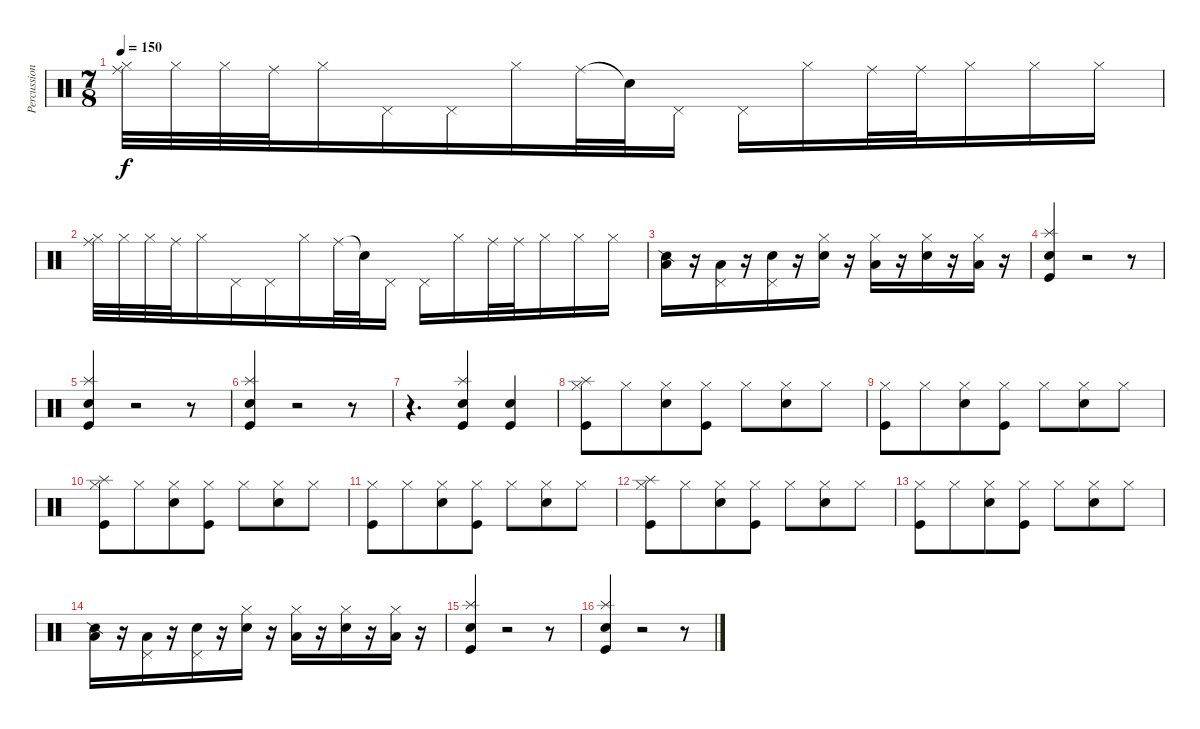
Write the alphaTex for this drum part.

\track ("Percussion" "Percussion") {instrument percussion}
\staff {score}
\articulation defaults
\ts (7 8)
\tempo 150
\clef neutral
\ks c
("Hi-Hat (closed)" "Ride (middle)").32{dy f} "Hi-Hat (closed)".32 "Hi-Hat (closed)".32 "Ride (middle)".32 "Hi-Hat (closed)".16 "Pedal Hi-Hat (hit)".16 "Pedal Hi-Hat (hit)".16 "Hi-Hat (closed)".16 "Ride (middle)".32 "Snare (hit)"{t}.32 "Pedal Hi-Hat (hit)".16 "Pedal Hi-Hat (hit)".16 "Hi-Hat (closed)".16 "Ride (middle)".32 "Ride (middle)".32 "Hi-Hat (closed)".16 "Hi-Hat (closed)".16 "Hi-Hat (closed)".16 |
("Hi-Hat (closed)" "Ride (middle)").32 "Hi-Hat (closed)".32 "Hi-Hat (closed)".32 "Ride (middle)".32 "Hi-Hat (closed)".16 "Pedal Hi-Hat (hit)".16 "Pedal Hi-Hat (hit)".16 "Hi-Hat (closed)".16 "Ride (middle)".32 "Snare (hit)"{t}.32 "Pedal Hi-Hat (hit)".16 "Pedal Hi-Hat (hit)".16 "Hi-Hat (closed)".16 "Ride (middle)".32 "Ride (middle)".32 "Hi-Hat (closed)".16 "Hi-Hat (closed)".16 "Hi-Hat (closed)".16 |
("Low Tom (hit)" "Snare (side stick) 2").16 r.16 ("Pedal Hi-Hat (hit)" "Low Tom (hit)").16 r.16 ("Pedal Hi-Hat (hit)" "Snare (hit) 2").16 r.16 ("Hi-Hat (closed)" "Snare (hit) 2").16 r.16 ("Hi-Hat (closed)" "Low Tom (hit)").16 r.16 ("Hi-Hat (closed)" "Snare (hit) 2").16 r.16 ("Hi-Hat (closed)" "Low Tom (hit)").16 r.16 |
("Splash (hit)" "Snare (hit) 2" "Kick (hit)").4 r.2 r.8 |
("Splash (hit)" "Snare (hit) 2" "Kick (hit)").4 r.2 r.8 |
("Splash (hit)" "Snare (hit) 2" "Kick (hit)").4 r.2 r.8 |
r.4{d} ("Splash (hit)" "Snare (hit) 2" "Kick (hit)").4 ("Snare (hit) 2" "Kick (hit)").4 |
("Splash (hit)" "Kick (hit)" "Hi-Hat (closed)").8 "Hi-Hat (closed)".8 ("Snare (hit) 2" "Hi-Hat (closed)").8 ("Kick (hit)" "Hi-Hat (closed)").8 "Hi-Hat (closed)".8 ("Snare (hit) 2" "Hi-Hat (closed)").8 "Hi-Hat (closed)".8 |
("Kick (hit)" "Hi-Hat (closed)").8 "Hi-Hat (closed)".8 ("Snare (hit) 2" "Hi-Hat (closed)").8 ("Kick (hit)" "Hi-Hat (closed)").8 "Hi-Hat (closed)".8 ("Snare (hit) 2" "Hi-Hat (closed)").8 "Hi-Hat (closed)".8 |
("Splash (hit)" "Kick (hit)" "Hi-Hat (closed)").8 "Hi-Hat (closed)".8 ("Snare (hit) 2" "Hi-Hat (closed)").8 ("Kick (hit)" "Hi-Hat (closed)").8 "Hi-Hat (closed)".8 ("Snare (hit) 2" "Hi-Hat (closed)").8 "Hi-Hat (closed)".8 |
("Kick (hit)" "Hi-Hat (closed)").8 "Hi-Hat (closed)".8 ("Snare (hit) 2" "Hi-Hat (closed)").8 ("Kick (hit)" "Hi-Hat (closed)").8 "Hi-Hat (closed)".8 ("Snare (hit) 2" "Hi-Hat (closed)").8 "Hi-Hat (closed)".8 |
("Splash (hit)" "Kick (hit)" "Hi-Hat (closed)").8 "Hi-Hat (closed)".8 ("Snare (hit) 2" "Hi-Hat (closed)").8 ("Kick (hit)" "Hi-Hat (closed)").8 "Hi-Hat (closed)".8 ("Snare (hit) 2" "Hi-Hat (closed)").8 "Hi-Hat (closed)".8 |
("Kick (hit)" "Hi-Hat (closed)").8 "Hi-Hat (closed)".8 ("Snare (hit) 2" "Hi-Hat (closed)").8 ("Kick (hit)" "Hi-Hat (closed)").8 "Hi-Hat (closed)".8 ("Snare (hit) 2" "Hi-Hat (closed)").8 "Hi-Hat (closed)".8 |
("Low Tom (hit)" "Snare (side stick) 2").16 r.16 ("Pedal Hi-Hat (hit)" "Low Tom (hit)").16 r.16 ("Pedal Hi-Hat (hit)" "Snare (hit) 2").16 r.16 ("Hi-Hat (closed)" "Snare (hit) 2").16 r.16 ("Hi-Hat (closed)" "Low Tom (hit)").16 r.16 ("Hi-Hat (closed)" "Snare (hit) 2").16 r.16 ("Hi-Hat (closed)" "Low Tom (hit)").16 r.16 |
("Splash (hit)" "Snare (hit) 2" "Kick (hit)").4 r.2 r.8 |
("Splash (hit)" "Snare (hit) 2" "Kick (hit)").4 r.2 r.8
